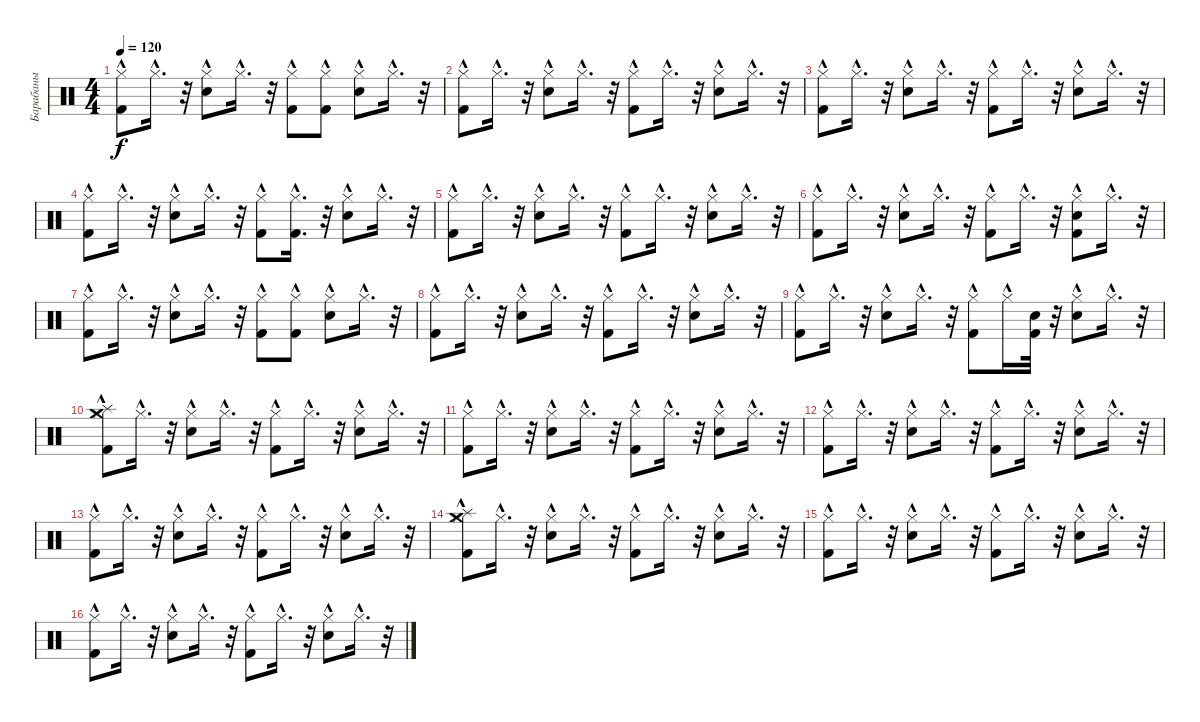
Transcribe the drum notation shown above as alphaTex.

\track ("Барабаны" "Барабаны") {instrument percussion}
\staff {score}
\articulation defaults
\ts (4 4)
\tempo 120
\clef neutral
\ks c
("Kick (hit) 2" "Hi-Hat (closed)"{hac}).8{dy f} "Hi-Hat (closed)"{hac}.16{d} r.32 ("Electric Snare (hit)" "Hi-Hat (closed)"{hac}).8 "Hi-Hat (closed)"{hac}.16{d} r.32 ("Kick (hit) 2" "Hi-Hat (closed)"{hac}).8 ("Kick (hit) 2" "Hi-Hat (closed)"{hac}).8 ("Electric Snare (hit)" "Hi-Hat (closed)"{hac}).8 "Hi-Hat (closed)"{hac}.16{d} r.32 |
("Kick (hit) 2" "Hi-Hat (closed)"{hac}).8 "Hi-Hat (closed)"{hac}.16{d} r.32 ("Electric Snare (hit)" "Hi-Hat (closed)"{hac}).8 "Hi-Hat (closed)"{hac}.16{d} r.32 ("Kick (hit) 2" "Hi-Hat (closed)"{hac}).8 "Hi-Hat (closed)"{hac}.16{d} r.32 ("Electric Snare (hit)" "Hi-Hat (closed)"{hac}).8 "Hi-Hat (closed)"{hac}.16{d} r.32 |
("Kick (hit) 2" "Hi-Hat (closed)"{hac}).8 "Hi-Hat (closed)"{hac}.16{d} r.32 ("Electric Snare (hit)" "Hi-Hat (closed)"{hac}).8 "Hi-Hat (closed)"{hac}.16{d} r.32 ("Kick (hit) 2" "Hi-Hat (closed)"{hac}).8 "Hi-Hat (closed)"{hac}.16{d} r.32 ("Electric Snare (hit)" "Hi-Hat (closed)"{hac}).8 "Hi-Hat (closed)"{hac}.16{d} r.32 |
("Kick (hit) 2" "Hi-Hat (closed)"{hac}).8 "Hi-Hat (closed)"{hac}.16{d} r.32 ("Electric Snare (hit)" "Hi-Hat (closed)"{hac}).8 "Hi-Hat (closed)"{hac}.16{d} r.32 ("Kick (hit) 2" "Hi-Hat (closed)"{hac}).8 ("Kick (hit) 2"{hac} "Hi-Hat (closed)"{hac}).16{d} r.32 ("Electric Snare (hit)" "Hi-Hat (closed)"{hac}).8 "Hi-Hat (closed)"{hac}.16{d} r.32 |
("Kick (hit) 2" "Hi-Hat (closed)"{hac}).8 "Hi-Hat (closed)"{hac}.16{d} r.32 ("Electric Snare (hit)" "Hi-Hat (closed)"{hac}).8 "Hi-Hat (closed)"{hac}.16{d} r.32 ("Kick (hit) 2" "Hi-Hat (closed)"{hac}).8 "Hi-Hat (closed)"{hac}.16{d} r.32 ("Electric Snare (hit)" "Hi-Hat (closed)"{hac}).8 "Hi-Hat (closed)"{hac}.16{d} r.32 |
("Kick (hit) 2" "Hi-Hat (closed)"{hac}).8 "Hi-Hat (closed)"{hac}.16{d} r.32 ("Electric Snare (hit)" "Hi-Hat (closed)"{hac}).8 "Hi-Hat (closed)"{hac}.16{d} r.32 ("Kick (hit) 2" "Hi-Hat (closed)"{hac}).8 "Hi-Hat (closed)"{hac}.16{d} r.32 ("Kick (hit) 2"{hac} "Electric Snare (hit)" "Hi-Hat (closed)"{hac}).8 "Hi-Hat (closed)"{hac}.16{d} r.32 |
("Kick (hit) 2" "Hi-Hat (closed)"{hac}).8 "Hi-Hat (closed)"{hac}.16{d} r.32 ("Electric Snare (hit)" "Hi-Hat (closed)"{hac}).8 "Hi-Hat (closed)"{hac}.16{d} r.32 ("Kick (hit) 2" "Hi-Hat (closed)"{hac}).8 ("Kick (hit) 2" "Hi-Hat (closed)"{hac}).8 ("Electric Snare (hit)" "Hi-Hat (closed)"{hac}).8 "Hi-Hat (closed)"{hac}.16{d} r.32 |
("Kick (hit) 2" "Hi-Hat (closed)"{hac}).8 "Hi-Hat (closed)"{hac}.16{d} r.32 ("Electric Snare (hit)" "Hi-Hat (closed)"{hac}).8 "Hi-Hat (closed)"{hac}.16{d} r.32 ("Kick (hit) 2" "Hi-Hat (closed)"{hac}).8 "Hi-Hat (closed)"{hac}.16{d} r.32 ("Electric Snare (hit)" "Hi-Hat (closed)"{hac}).8 "Hi-Hat (closed)"{hac}.16{d} r.32 |
("Kick (hit) 2" "Hi-Hat (closed)"{hac}).8 "Hi-Hat (closed)"{hac}.16{d} r.32 ("Electric Snare (hit)" "Hi-Hat (closed)"{hac}).8 "Hi-Hat (closed)"{hac}.16{d} r.32 ("Kick (hit) 2" "Hi-Hat (closed)"{hac}).8 "Hi-Hat (closed)"{hac}.16 ("Electric Snare (hit)" "Kick (hit) 2").32 r.32 ("Electric Snare (hit)" "Hi-Hat (closed)"{hac}).8 "Hi-Hat (closed)"{hac}.16{d} r.32 |
("Crash medium (hit)" "Splash (hit)" "Kick (hit) 2" "Hi-Hat (closed)"{hac}).8 "Hi-Hat (closed)"{hac}.16{d} r.32 ("Electric Snare (hit)" "Hi-Hat (closed)"{hac}).8 "Hi-Hat (closed)"{hac}.16{d} r.32 ("Kick (hit) 2" "Hi-Hat (closed)"{hac}).8 "Hi-Hat (closed)"{hac}.16{d} r.32 ("Electric Snare (hit)" "Hi-Hat (closed)"{hac}).8 "Hi-Hat (closed)"{hac}.16{d} r.32 |
("Kick (hit) 2" "Hi-Hat (closed)"{hac}).8 "Hi-Hat (closed)"{hac}.16{d} r.32 ("Electric Snare (hit)" "Hi-Hat (closed)"{hac}).8 "Hi-Hat (closed)"{hac}.16{d} r.32 ("Kick (hit) 2" "Hi-Hat (closed)"{hac}).8 "Hi-Hat (closed)"{hac}.16{d} r.32 ("Electric Snare (hit)" "Hi-Hat (closed)"{hac}).8 "Hi-Hat (closed)"{hac}.16{d} r.32 |
("Kick (hit) 2" "Hi-Hat (closed)"{hac}).8 "Hi-Hat (closed)"{hac}.16{d} r.32 ("Electric Snare (hit)" "Hi-Hat (closed)"{hac}).8 "Hi-Hat (closed)"{hac}.16{d} r.32 ("Kick (hit) 2" "Hi-Hat (closed)"{hac}).8 "Hi-Hat (closed)"{hac}.16{d} r.32 ("Electric Snare (hit)" "Hi-Hat (closed)"{hac}).8 "Hi-Hat (closed)"{hac}.16{d} r.32 |
("Kick (hit) 2" "Hi-Hat (closed)"{hac}).8 "Hi-Hat (closed)"{hac}.16{d} r.32 ("Electric Snare (hit)" "Hi-Hat (closed)"{hac}).8 "Hi-Hat (closed)"{hac}.16{d} r.32 ("Kick (hit) 2" "Hi-Hat (closed)"{hac}).8 "Hi-Hat (closed)"{hac}.16{d} r.32 ("Electric Snare (hit)" "Hi-Hat (closed)"{hac}).8 "Hi-Hat (closed)"{hac}.16{d} r.32 |
("Crash medium (hit)" "Splash (hit)" "Kick (hit) 2" "Hi-Hat (closed)"{hac}).8 "Hi-Hat (closed)"{hac}.16{d} r.32 ("Electric Snare (hit)" "Hi-Hat (closed)"{hac}).8 "Hi-Hat (closed)"{hac}.16{d} r.32 ("Kick (hit) 2" "Hi-Hat (closed)"{hac}).8 "Hi-Hat (closed)"{hac}.16{d} r.32 ("Electric Snare (hit)" "Hi-Hat (closed)"{hac}).8 "Hi-Hat (closed)"{hac}.16{d} r.32 |
("Kick (hit) 2" "Hi-Hat (closed)"{hac}).8 "Hi-Hat (closed)"{hac}.16{d} r.32 ("Electric Snare (hit)" "Hi-Hat (closed)"{hac}).8 "Hi-Hat (closed)"{hac}.16{d} r.32 ("Kick (hit) 2" "Hi-Hat (closed)"{hac}).8 "Hi-Hat (closed)"{hac}.16{d} r.32 ("Electric Snare (hit)" "Hi-Hat (closed)"{hac}).8 "Hi-Hat (closed)"{hac}.16{d} r.32 |
("Kick (hit) 2" "Hi-Hat (closed)"{hac}).8 "Hi-Hat (closed)"{hac}.16{d} r.32 ("Electric Snare (hit)" "Hi-Hat (closed)"{hac}).8 "Hi-Hat (closed)"{hac}.16{d} r.32 ("Kick (hit) 2" "Hi-Hat (closed)"{hac}).8 "Hi-Hat (closed)"{hac}.16{d} r.32 ("Electric Snare (hit)" "Hi-Hat (closed)"{hac}).8 "Hi-Hat (closed)"{hac}.16{d} r.32
